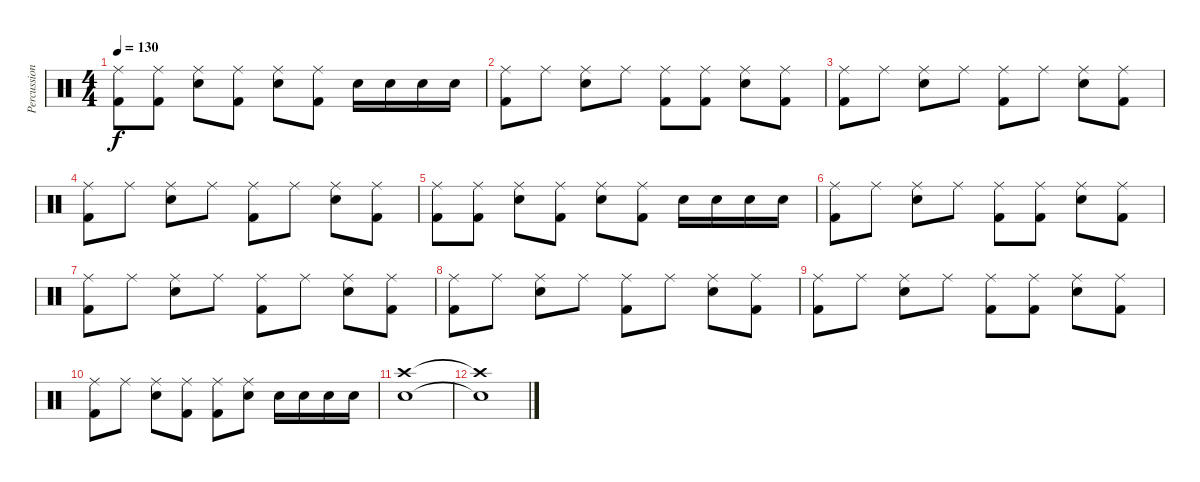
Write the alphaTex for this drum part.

\track ("Percussion" "Percussion") {instrument percussion}
\staff {score}
\articulation defaults
\ts (4 4)
\tempo 130
\clef neutral
\ks c
("Kick (hit) 2" "Ride (middle)").8{dy f} ("Kick (hit) 2" "Ride (middle)").8 ("Snare (hit) 2" "Ride (middle)").8 ("Kick (hit) 2" "Ride (middle)").8 ("Snare (hit) 2" "Ride (middle)").8 ("Kick (hit) 2" "Ride (middle)").8 "Snare (hit) 2".16 "Snare (hit) 2".16 "Snare (hit) 2".16 "Snare (hit) 2".16 |
("Kick (hit) 2" "Ride (middle)").8 "Ride (middle)".8 ("Snare (hit) 2" "Ride (middle)").8 "Ride (middle)".8 ("Kick (hit) 2" "Ride (middle)").8 ("Kick (hit) 2" "Ride (middle)").8 ("Snare (hit) 2" "Ride (middle)").8 ("Kick (hit) 2" "Ride (middle)").8 |
("Kick (hit) 2" "Ride (middle)").8 "Ride (middle)".8 ("Snare (hit) 2" "Ride (middle)").8 "Ride (middle)".8 ("Kick (hit) 2" "Ride (middle)").8 "Ride (middle)".8 ("Snare (hit) 2" "Ride (middle)").8 ("Kick (hit) 2" "Ride (middle)").8 |
("Kick (hit) 2" "Ride (middle)").8 "Ride (middle)".8 ("Snare (hit) 2" "Ride (middle)").8 "Ride (middle)".8 ("Kick (hit) 2" "Ride (middle)").8 "Ride (middle)".8 ("Snare (hit) 2" "Ride (middle)").8 ("Kick (hit) 2" "Ride (middle)").8 |
("Kick (hit) 2" "Ride (middle)").8 ("Kick (hit) 2" "Ride (middle)").8 ("Snare (hit) 2" "Ride (middle)").8 ("Kick (hit) 2" "Ride (middle)").8 ("Snare (hit) 2" "Ride (middle)").8 ("Kick (hit) 2" "Ride (middle)").8 "Snare (hit) 2".16 "Snare (hit) 2".16 "Snare (hit) 2".16 "Snare (hit) 2".16 |
("Kick (hit) 2" "Ride (middle)").8 "Ride (middle)".8 ("Snare (hit) 2" "Ride (middle)").8 "Ride (middle)".8 ("Kick (hit) 2" "Ride (middle)").8 ("Kick (hit) 2" "Ride (middle)").8 ("Snare (hit) 2" "Ride (middle)").8 ("Kick (hit) 2" "Ride (middle)").8 |
("Kick (hit) 2" "Ride (middle)").8 "Ride (middle)".8 ("Snare (hit) 2" "Ride (middle)").8 "Ride (middle)".8 ("Kick (hit) 2" "Ride (middle)").8 "Ride (middle)".8 ("Snare (hit) 2" "Ride (middle)").8 ("Kick (hit) 2" "Ride (middle)").8 |
("Kick (hit) 2" "Ride (middle)").8 "Ride (middle)".8 ("Snare (hit) 2" "Ride (middle)").8 "Ride (middle)".8 ("Kick (hit) 2" "Ride (middle)").8 "Ride (middle)".8 ("Snare (hit) 2" "Ride (middle)").8 ("Kick (hit) 2" "Ride (middle)").8 |
("Kick (hit) 2" "Ride (middle)").8 "Ride (middle)".8 ("Snare (hit) 2" "Ride (middle)").8 "Ride (middle)".8 ("Kick (hit) 2" "Ride (middle)").8 ("Kick (hit) 2" "Ride (middle)").8 ("Snare (hit) 2" "Ride (middle)").8 ("Kick (hit) 2" "Ride (middle)").8 |
("Kick (hit) 2" "Ride (middle)").8 "Ride (middle)".8 ("Snare (hit) 2" "Ride (middle)").8 ("Kick (hit) 2" "Ride (middle)").8 ("Kick (hit) 2" "Ride (middle)").8 ("Snare (hit) 2" "Ride (middle)").8 "Snare (hit) 2".16 "Snare (hit) 2".16 "Snare (hit) 2".16 "Snare (hit) 2".16 |
("Snare (hit) 2" "Crash high (hit)").1 |
("Snare (hit) 2"{t} "Crash high (hit)"{t}).1
